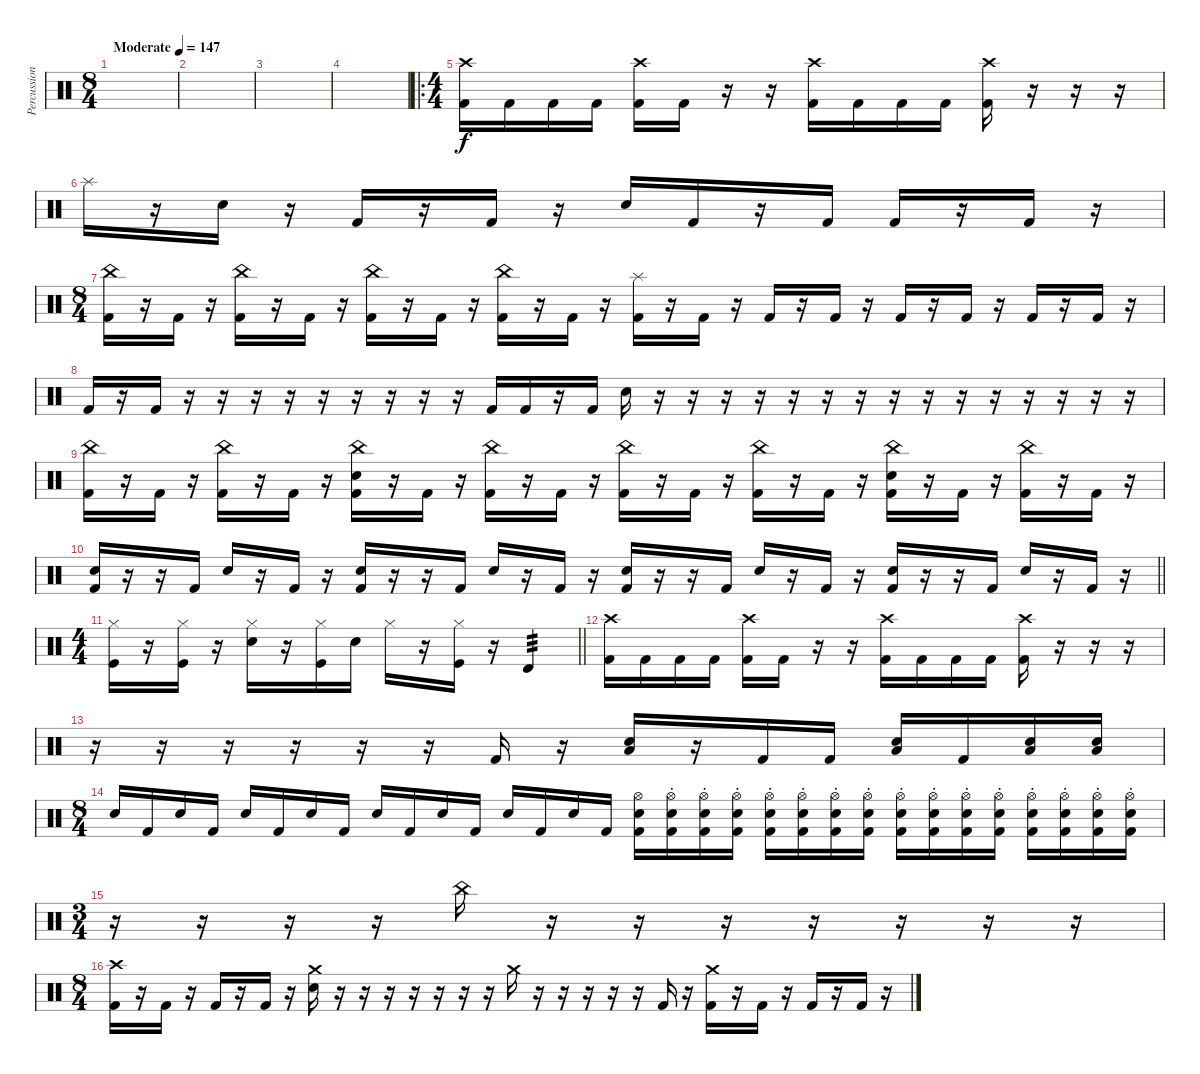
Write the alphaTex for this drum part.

\track ("Percussion" "Percussion") {instrument percussion}
\staff {score}
\articulation defaults
\ts (8 4)
\tempo (147 "Moderate")
\clef neutral
\ks c
|
|
|
|
\ro
\ts (4 4)
("Crash high (hit)" "Kick (hit) 2").16 "Kick (hit) 2".16 "Kick (hit) 2".16 "Kick (hit) 2".16 ("Crash high (hit)" "Kick (hit) 2").16 "Kick (hit) 2".16 r.16 r.16 ("Crash high (hit)" "Kick (hit) 2").16 "Kick (hit) 2".16 "Kick (hit) 2".16 "Kick (hit) 2".16 ("Crash high (hit)" "Kick (hit) 2").16 r.16 r.16 r.16 |
"Splash (hit)".16 r.16 "Electric Snare (hit)".16 r.16 "Kick (hit) 2".16 r.16 "Kick (hit) 2".16 r.16 "Electric Snare (hit)".16 "Kick (hit) 2".16 r.16 "Kick (hit) 2".16 "Kick (hit) 2".16 r.16 "Kick (hit) 2".16 r.16 |
\ts (8 4)
("China (hit)" "Kick (hit) 2").16 r.16 "Kick (hit) 2".16 r.16 ("China (hit)" "Kick (hit) 2").16 r.16 "Kick (hit) 2".16 r.16 ("China (hit)" "Kick (hit) 2").16 r.16 "Kick (hit) 2".16 r.16 ("China (hit)" "Kick (hit) 2").16 r.16 "Kick (hit) 2".16 r.16 ("Splash (hit)" "Kick (hit) 2").16 r.16 "Kick (hit) 2".16 r.16 "Kick (hit) 2".16 r.16 "Kick (hit) 2".16 r.16 "Kick (hit) 2".16 r.16 "Kick (hit) 2".16 r.16 "Kick (hit) 2".16 r.16 "Kick (hit) 2".16 r.16 |
"Kick (hit) 2".16 r.16 "Kick (hit) 2".16 r.16 r.16 r.16 r.16 r.16 r.16 r.16 r.16 r.16 "Kick (hit) 2".16 "Kick (hit) 2".16 r.16 "Kick (hit) 2".16 "Electric Snare (hit)".16 r.16 r.16 r.16 r.16 r.16 r.16 r.16 r.16 r.16 r.16 r.16 r.16 r.16 r.16 r.16 |
("China (hit)" "Kick (hit) 2").16 r.16 "Kick (hit) 2".16 r.16 ("China (hit)" "Kick (hit) 2").16 r.16 "Kick (hit) 2".16 r.16 ("China (hit)" "Electric Snare (hit)" "Kick (hit) 2").16 r.16 "Kick (hit) 2".16 r.16 ("China (hit)" "Kick (hit) 2").16 r.16 "Kick (hit) 2".16 r.16 ("China (hit)" "Kick (hit) 2").16 r.16 "Kick (hit) 2".16 r.16 ("China (hit)" "Kick (hit) 2").16 r.16 "Kick (hit) 2".16 r.16 ("China (hit)" "Electric Snare (hit)" "Kick (hit) 2").16 r.16 "Kick (hit) 2".16 r.16 ("China (hit)" "Kick (hit) 2").16 r.16 "Kick (hit) 2".16 r.16 |
\barLineRight lightlight
("Electric Snare (hit)" "Kick (hit) 2").16 r.16 r.16 "Kick (hit) 2".16 "Electric Snare (hit)".16 r.16 "Kick (hit) 2".16 r.16 ("Electric Snare (hit)" "Kick (hit) 2").16 r.16 r.16 "Kick (hit) 2".16 "Electric Snare (hit)".16 r.16 "Kick (hit) 2".16 r.16 ("Electric Snare (hit)" "Kick (hit) 2").16 r.16 r.16 "Kick (hit) 2".16 "Electric Snare (hit)".16 r.16 "Kick (hit) 2".16 r.16 ("Electric Snare (hit)" "Kick (hit) 2").16 r.16 r.16 "Kick (hit) 2".16 "Electric Snare (hit)".16 r.16 "Kick (hit) 2".16 r.16 |
\ts (4 4)
\barLineRight lightlight
("Hi-Hat (closed)" "Kick (hit)").16 r.16 ("Hi-Hat (closed)" "Kick (hit)").16 r.16 ("Hi-Hat (closed)" "Electric Snare (hit)").16 r.16 ("Hi-Hat (closed)" "Kick (hit)").16 "Electric Snare (hit)".16 "Hi-Hat (closed)".16 r.16 ("Hi-Hat (closed)" "Kick (hit)").16 r.16 "Timbale high (hit)".4{tp 3} |
("Crash high (hit)" "Kick (hit) 2").16 "Kick (hit) 2".16 "Kick (hit) 2".16 "Kick (hit) 2".16 ("Crash high (hit)" "Kick (hit) 2").16 "Kick (hit) 2".16 r.16 r.16 ("Crash high (hit)" "Kick (hit) 2").16 "Kick (hit) 2".16 "Kick (hit) 2".16 "Kick (hit) 2".16 ("Crash high (hit)" "Kick (hit) 2").16 r.16 r.16 r.16 |
r.16 r.16 r.16 r.16 r.16 r.16 "Kick (hit) 2".16 r.16 ("Electric Snare (hit)" "Low Tom (hit)").16 r.16 "Kick (hit) 2".16 "Kick (hit) 2".16 ("Electric Snare (hit)" "Low Tom (hit)").16 "Kick (hit) 2".16 ("Electric Snare (hit)" "Low Tom (hit)").16 ("Electric Snare (hit)" "Low Tom (hit)").16 |
\ts (8 4)
"Electric Snare (hit)".16 "Kick (hit) 2".16 "Electric Snare (hit)".16 "Kick (hit) 2".16 "Electric Snare (hit)".16 "Kick (hit) 2".16 "Electric Snare (hit)".16 "Kick (hit) 2".16 "Electric Snare (hit)".16 "Kick (hit) 2".16 "Electric Snare (hit)".16 "Kick (hit) 2".16 "Electric Snare (hit)".16 "Kick (hit) 2".16 "Electric Snare (hit)".16 "Kick (hit) 2".16 ("Hi-Hat (open)" "Electric Snare (hit)" "Kick (hit) 2").16 ("Hi-Hat (open)"{st} "Electric Snare (hit)" "Kick (hit) 2").16 ("Hi-Hat (open)"{st} "Electric Snare (hit)" "Kick (hit) 2").16 ("Hi-Hat (open)"{st} "Electric Snare (hit)" "Kick (hit) 2").16 ("Hi-Hat (open)"{st} "Electric Snare (hit)" "Kick (hit) 2").16 ("Hi-Hat (open)"{st} "Electric Snare (hit)" "Kick (hit) 2").16 ("Hi-Hat (open)"{st} "Electric Snare (hit)" "Kick (hit) 2").16 ("Hi-Hat (open)"{st} "Electric Snare (hit)" "Kick (hit) 2").16 ("Hi-Hat (open)"{st} "Electric Snare (hit)" "Kick (hit) 2").16 ("Hi-Hat (open)"{st} "Electric Snare (hit)" "Kick (hit) 2").16 ("Hi-Hat (open)"{st} "Electric Snare (hit)" "Kick (hit) 2").16 ("Hi-Hat (open)"{st} "Electric Snare (hit)" "Kick (hit) 2").16 ("Hi-Hat (open)"{st} "Electric Snare (hit)" "Kick (hit) 2").16 ("Hi-Hat (open)"{st} "Electric Snare (hit)" "Kick (hit) 2").16 ("Hi-Hat (open)"{st} "Electric Snare (hit)" "Kick (hit) 2").16 ("Hi-Hat (open)"{st} "Electric Snare (hit)" "Kick (hit) 2").16 |
\ts (3 4)
r.16 r.16 r.16 r.16 "China (hit)".16 r.16 r.16 r.16 r.16 r.16 r.16 r.16 |
\ts (8 4)
("Crash high (hit)" "Kick (hit) 2").16 r.16 "Kick (hit) 2".16 r.16 "Kick (hit) 2".16 r.16 "Kick (hit) 2".16 r.16 ("Crash medium (hit)" "Electric Snare (hit)").16 r.16 r.16 r.16 r.16 r.16 r.16 r.16 "Crash medium (hit)".16 r.16 r.16 r.16 r.16 r.16 "Kick (hit) 2".16 r.16 ("Crash medium (hit)" "Kick (hit) 2").16 r.16 "Kick (hit) 2".16 r.16 "Kick (hit) 2".16 r.16 "Kick (hit) 2".16 r.16
